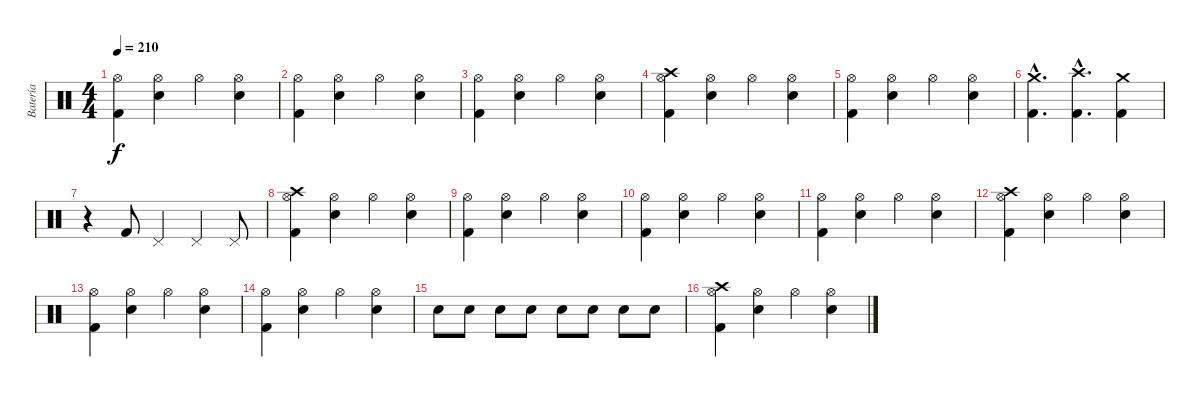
\track ("Batería" "Batería") {instrument percussion}
\staff {score}
\articulation defaults
\ts (4 4)
\tempo 210
\clef neutral
\ks c
("Hi-Hat (open)" "Kick (hit) 2").4{dy f} ("Hi-Hat (open)" "Electric Snare (hit)").4 "Hi-Hat (open)".4 ("Hi-Hat (open)" "Electric Snare (hit)").4 |
("Hi-Hat (open)" "Kick (hit) 2").4 ("Hi-Hat (open)" "Electric Snare (hit)").4 "Hi-Hat (open)".4 ("Hi-Hat (open)" "Electric Snare (hit)").4 |
("Hi-Hat (open)" "Kick (hit) 2").4 ("Hi-Hat (open)" "Electric Snare (hit)").4 "Hi-Hat (open)".4 ("Hi-Hat (open)" "Electric Snare (hit)").4 |
("Hi-Hat (open)" "Kick (hit) 2" "Crash high (hit)").4 ("Hi-Hat (open)" "Electric Snare (hit)").4 "Hi-Hat (open)".4 ("Hi-Hat (open)" "Electric Snare (hit)").4 |
("Hi-Hat (open)" "Kick (hit) 2").4 ("Hi-Hat (open)" "Electric Snare (hit)").4 "Hi-Hat (open)".4 ("Hi-Hat (open)" "Electric Snare (hit)").4 |
("Kick (hit) 2"{hac} "Crash medium (hit)"{hac}).4{d} ("Kick (hit) 2"{hac} "Crash high (hit)"{hac}).4{d} ("Kick (hit) 2" "Crash medium (hit)").4 |
r.4 "Kick (hit) 2".8 "Pedal Hi-Hat (hit)".4 "Pedal Hi-Hat (hit)".4 "Pedal Hi-Hat (hit)".8 |
("Hi-Hat (open)" "Kick (hit) 2" "Crash high (hit)").4 ("Hi-Hat (open)" "Electric Snare (hit)").4 "Hi-Hat (open)".4 ("Hi-Hat (open)" "Electric Snare (hit)").4 |
("Hi-Hat (open)" "Kick (hit) 2").4 ("Hi-Hat (open)" "Electric Snare (hit)").4 "Hi-Hat (open)".4 ("Hi-Hat (open)" "Electric Snare (hit)").4 |
("Hi-Hat (open)" "Kick (hit) 2").4 ("Hi-Hat (open)" "Electric Snare (hit)").4 "Hi-Hat (open)".4 ("Hi-Hat (open)" "Electric Snare (hit)").4 |
("Hi-Hat (open)" "Kick (hit) 2").4 ("Hi-Hat (open)" "Electric Snare (hit)").4 "Hi-Hat (open)".4 ("Hi-Hat (open)" "Electric Snare (hit)").4 |
("Hi-Hat (open)" "Kick (hit) 2" "Crash high (hit)").4 ("Hi-Hat (open)" "Electric Snare (hit)").4 "Hi-Hat (open)".4 ("Hi-Hat (open)" "Electric Snare (hit)").4 |
("Hi-Hat (open)" "Kick (hit) 2").4 ("Hi-Hat (open)" "Electric Snare (hit)").4 "Hi-Hat (open)".4 ("Hi-Hat (open)" "Electric Snare (hit)").4 |
("Hi-Hat (open)" "Kick (hit) 2").4 ("Hi-Hat (open)" "Electric Snare (hit)").4 "Hi-Hat (open)".4 ("Hi-Hat (open)" "Electric Snare (hit)").4 |
"Electric Snare (hit)".8 "Electric Snare (hit)".8 "Electric Snare (hit)".8 "Electric Snare (hit)".8 "Electric Snare (hit)".8 "Electric Snare (hit)".8 "Electric Snare (hit)".8 "Electric Snare (hit)".8 |
("Hi-Hat (open)" "Kick (hit) 2" "Crash high (hit)").4 ("Hi-Hat (open)" "Electric Snare (hit)").4 "Hi-Hat (open)".4 ("Hi-Hat (open)" "Electric Snare (hit)").4
